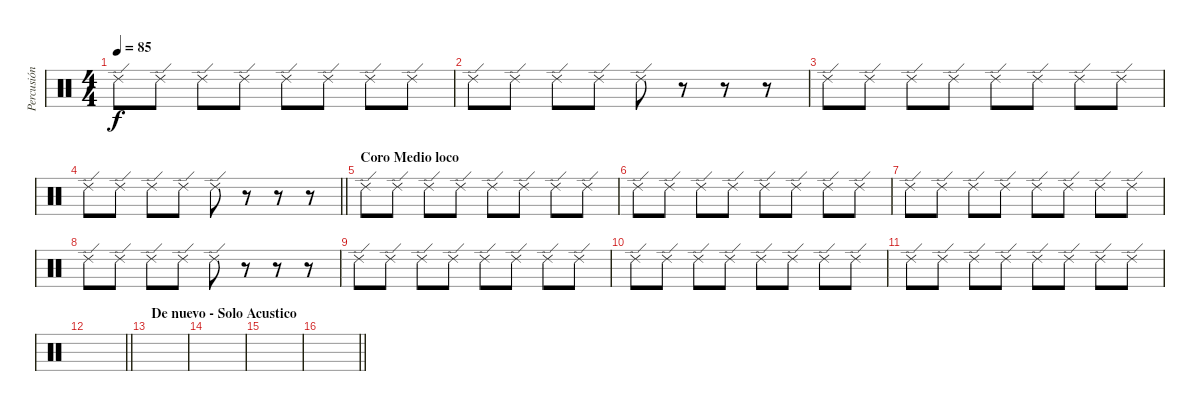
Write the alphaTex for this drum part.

\track ("Percusión" "Percusión") {instrument percussion}
\staff {score}
\articulation defaults
\ts (4 4)
\tempo 85
\clef neutral
\ks c "Ride (edge) 2".8{dy f} "Ride (edge) 2".8 "Ride (edge) 2".8 "Ride (edge) 2".8 "Ride (edge) 2".8 "Ride (edge) 2".8 "Ride (edge) 2".8 "Ride (edge) 2".8
|
"Ride (edge) 2".8 "Ride (edge) 2".8 "Ride (edge) 2".8 "Ride (edge) 2".8 "Ride (edge) 2".8 r.8 r.8 r.8 |
"Ride (edge) 2".8 "Ride (edge) 2".8 "Ride (edge) 2".8 "Ride (edge) 2".8 "Ride (edge) 2".8 "Ride (edge) 2".8 "Ride (edge) 2".8 "Ride (edge) 2".8 |
\barLineRight lightlight "Ride (edge) 2".8 "Ride (edge) 2".8 "Ride (edge) 2".8 "Ride (edge) 2".8 "Ride (edge) 2".8
r.8 r.8 r.8 |
\section ("" "Coro Medio loco")
"Ride (edge) 2".8 "Ride (edge) 2".8 "Ride (edge) 2".8 "Ride (edge) 2".8 "Ride (edge) 2".8 "Ride (edge) 2".8 "Ride (edge) 2".8 "Ride (edge) 2".8 |
"Ride (edge) 2".8 "Ride (edge) 2".8 "Ride (edge) 2".8 "Ride (edge) 2".8 "Ride (edge) 2".8 "Ride (edge) 2".8 "Ride (edge) 2".8 "Ride (edge) 2".8 |
"Ride (edge) 2".8 "Ride (edge) 2".8 "Ride (edge) 2".8 "Ride (edge) 2".8 "Ride (edge) 2".8 "Ride (edge) 2".8 "Ride (edge) 2".8 "Ride (edge) 2".8 |
"Ride (edge) 2".8 "Ride (edge) 2".8 "Ride (edge) 2".8 "Ride (edge) 2".8 "Ride (edge) 2".8 r.8 r.8 r.8 |
"Ride (edge) 2".8 "Ride (edge) 2".8 "Ride (edge) 2".8 "Ride (edge) 2".8 "Ride (edge) 2".8 "Ride (edge) 2".8 "Ride (edge) 2".8 "Ride (edge) 2".8 |
"Ride (edge) 2".8 "Ride (edge) 2".8 "Ride (edge) 2".8 "Ride (edge) 2".8 "Ride (edge) 2".8 "Ride (edge) 2".8 "Ride (edge) 2".8 "Ride (edge) 2".8 |
"Ride (edge) 2".8 "Ride (edge) 2".8 "Ride (edge) 2".8 "Ride (edge) 2".8 "Ride (edge) 2".8 "Ride (edge) 2".8 "Ride (edge) 2".8 "Ride (edge) 2".8 |
\barLineRight lightlight
|
\section ("" "De nuevo - Solo Acustico")
|
|
|
\barLineRight lightlight
